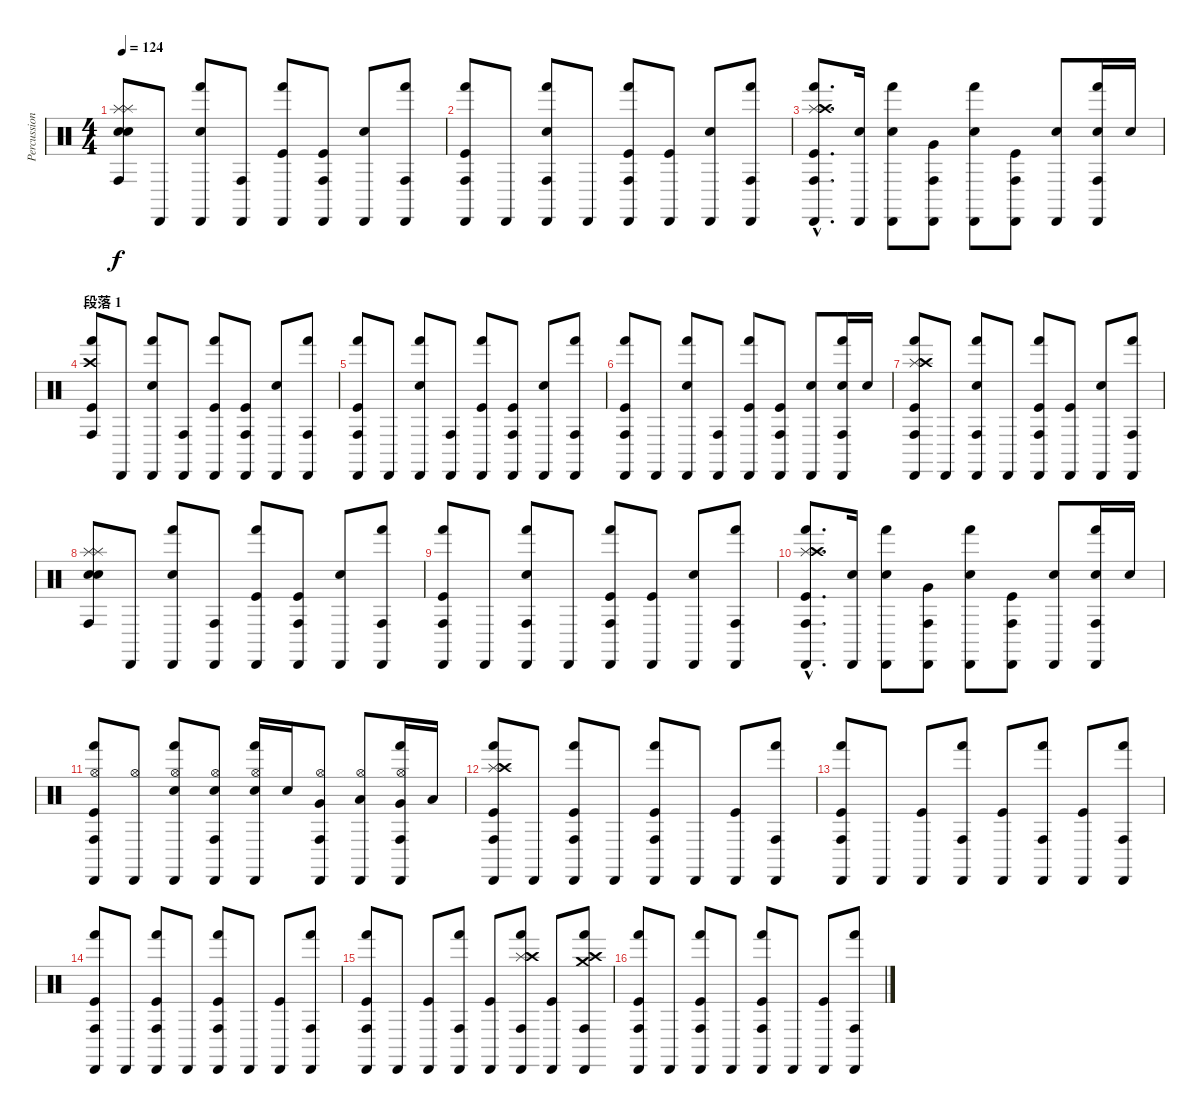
\track ("Percussion" "Percussion") {instrument percussion}
\staff {score}
\articulation defaults
\ts (4 4)
\tempo 124
\clef neutral
\ks c
("Splash (hit)" "Snare (hit)" "Splash (hit)" "Conga high (hit)" "Snare (hit)").8{dy f} "Cabasa (hit)".8 ("Cabasa (hit)" "Electric Snare (hit)" "Hand (hit)").8 ("Cabasa (hit)" "Conga high (hit)").8 ("Cabasa (hit)" "Kick (hit)" "Hand (hit)").8 ("Cabasa (hit)" "Kick (hit)" "Conga high (hit)").8 ("Cabasa (hit)" "Electric Snare (hit)").8 ("Cabasa (hit)" "Hand (hit)" "Conga high (hit)").8 |
("Cabasa (hit)" "Kick (hit)" "Hand (hit)" "Conga high (hit)").8 "Cabasa (hit)".8 ("Cabasa (hit)" "Electric Snare (hit)" "Hand (hit)" "Conga high (hit)").8 "Cabasa (hit)".8 ("Cabasa (hit)" "Kick (hit)" "Hand (hit)" "Conga high (hit)").8 ("Cabasa (hit)" "Kick (hit)").8 ("Cabasa (hit)" "Electric Snare (hit)").8 ("Cabasa (hit)" "Hand (hit)" "Conga high (hit)").8 |
("Cabasa (hit)"{hac} "Kick (hit)"{hac} "Hand (hit)"{hac} "Conga high (hit)"{hac} "Splash (hit)"{hac} "Crash high (hit)"{hac}).8{d} ("Cabasa (hit)" "Snare (hit) 2").16 ("Cabasa (hit)" "Snare (hit) 2" "Hand (hit)").8 ("Cabasa (hit)" "Very Low Tom (hit)" "Conga high (hit)").8 ("Cabasa (hit)" "Snare (hit) 2" "Hand (hit)").8 ("Cabasa (hit)" "Kick (hit)" "Conga high (hit)").8 ("Cabasa (hit)" "Snare (hit) 2").8 ("Cabasa (hit)" "Snare (hit) 2" "Hand (hit)" "Conga high (hit)").16 "Snare (hit) 2".16 |
\section ("" "段落 1")
("Crash high (hit)" "Kick (hit)" "Hand (hit)" "Conga high (hit)").8 "Cabasa (hit)".8 ("Cabasa (hit)" "Electric Snare (hit)" "Hand (hit)").8 ("Cabasa (hit)" "Conga high (hit)").8 ("Cabasa (hit)" "Kick (hit)" "Hand (hit)").8 ("Cabasa (hit)" "Kick (hit)" "Conga high (hit)").8 ("Cabasa (hit)" "Electric Snare (hit)").8 ("Cabasa (hit)" "Hand (hit)" "Conga high (hit)").8 |
("Cabasa (hit)" "Kick (hit)" "Hand (hit)" "Conga high (hit)").8 "Cabasa (hit)".8 ("Cabasa (hit)" "Electric Snare (hit)" "Hand (hit)").8 ("Cabasa (hit)" "Conga high (hit)").8 ("Cabasa (hit)" "Kick (hit)" "Hand (hit)").8 ("Cabasa (hit)" "Kick (hit)" "Conga high (hit)").8 ("Cabasa (hit)" "Electric Snare (hit)").8 ("Cabasa (hit)" "Hand (hit)" "Conga high (hit)").8 |
("Cabasa (hit)" "Kick (hit)" "Hand (hit)" "Conga high (hit)").8 "Cabasa (hit)".8 ("Cabasa (hit)" "Electric Snare (hit)" "Hand (hit)").8 ("Cabasa (hit)" "Conga high (hit)").8 ("Cabasa (hit)" "Kick (hit)" "Hand (hit)").8 ("Cabasa (hit)" "Kick (hit)" "Conga high (hit)").8 ("Cabasa (hit)" "Electric Snare (hit)").8 ("Cabasa (hit)" "Snare (hit) 2" "Hand (hit)" "Conga high (hit)").16 "Snare (hit) 2".16 |
("Cabasa (hit)" "Kick (hit)" "Hand (hit)" "Conga high (hit)" "Splash (hit)" "Crash high (hit)").8 "Cabasa (hit)".8 ("Cabasa (hit)" "Electric Snare (hit)" "Hand (hit)" "Conga high (hit)").8 "Cabasa (hit)".8 ("Cabasa (hit)" "Kick (hit)" "Hand (hit)" "Conga high (hit)").8 ("Cabasa (hit)" "Kick (hit)").8 ("Cabasa (hit)" "Electric Snare (hit)").8 ("Cabasa (hit)" "Hand (hit)" "Conga high (hit)").8 |
("Splash (hit)" "Snare (hit)" "Splash (hit)" "Conga high (hit)" "Snare (hit)").8 "Cabasa (hit)".8 ("Cabasa (hit)" "Electric Snare (hit)" "Hand (hit)").8 ("Cabasa (hit)" "Conga high (hit)").8 ("Cabasa (hit)" "Kick (hit)" "Hand (hit)").8 ("Cabasa (hit)" "Kick (hit)" "Conga high (hit)").8 ("Cabasa (hit)" "Electric Snare (hit)").8 ("Cabasa (hit)" "Hand (hit)" "Conga high (hit)").8 |
("Cabasa (hit)" "Kick (hit)" "Hand (hit)" "Conga high (hit)").8 "Cabasa (hit)".8 ("Cabasa (hit)" "Electric Snare (hit)" "Hand (hit)" "Conga high (hit)").8 "Cabasa (hit)".8 ("Cabasa (hit)" "Kick (hit)" "Hand (hit)" "Conga high (hit)").8 ("Cabasa (hit)" "Kick (hit)").8 ("Cabasa (hit)" "Electric Snare (hit)").8 ("Cabasa (hit)" "Hand (hit)" "Conga high (hit)").8 |
("Cabasa (hit)"{hac} "Kick (hit)"{hac} "Hand (hit)"{hac} "Conga high (hit)"{hac} "Splash (hit)"{hac} "Crash high (hit)"{hac}).8{d} ("Cabasa (hit)" "Snare (hit) 2").16 ("Cabasa (hit)" "Snare (hit) 2" "Hand (hit)").8 ("Cabasa (hit)" "Very Low Tom (hit)" "Conga high (hit)").8 ("Cabasa (hit)" "Snare (hit) 2" "Hand (hit)").8 ("Cabasa (hit)" "Kick (hit)" "Conga high (hit)").8 ("Cabasa (hit)" "Snare (hit) 2").8 ("Cabasa (hit)" "Snare (hit) 2" "Hand (hit)" "Conga high (hit)").16 "Snare (hit) 2".16 |
("Cabasa (hit)" "Kick (hit)" "Hand (hit)" "Conga high (hit)" "Hi-Hat (open)").8 ("Cabasa (hit)" "Hi-Hat (open)").8 ("Cabasa (hit)" "Electric Snare (hit)" "Hand (hit)" "Hi-Hat (open)").8 ("Cabasa (hit)" "Electric Snare (hit)" "Conga high (hit)" "Hi-Hat (open)").8 ("Cabasa (hit)" "Snare (hit) 2" "Hand (hit)" "Hi-Hat (open)").16 "Snare (hit) 2".16 ("Cabasa (hit)" "Very Low Tom (hit)" "Conga high (hit)" "Hi-Hat (open)").8 ("Cabasa (hit)" "Low Floor Tom (hit)" "Hi-Hat (open)").8 ("Cabasa (hit)" "Very Low Tom (hit)" "Hand (hit)" "Conga high (hit)" "Hi-Hat (open)").16 "Low Tom (hit)".16 |
("Cabasa (hit)" "Kick (hit)" "Hand (hit)" "Conga high (hit)" "Splash (hit)" "Crash high (hit)").8 "Cabasa (hit)".8 ("Cabasa (hit)" "Kick (hit)" "Hand (hit)" "Conga high (hit)").8 "Cabasa (hit)".8 ("Cabasa (hit)" "Kick (hit)" "Hand (hit)" "Conga high (hit)").8 "Cabasa (hit)".8 ("Cabasa (hit)" "Kick (hit)").8 ("Cabasa (hit)" "Hand (hit)" "Conga high (hit)").8 |
("Cabasa (hit)" "Kick (hit)" "Hand (hit)" "Conga high (hit)").8 "Cabasa (hit)".8 ("Cabasa (hit)" "Kick (hit)").8 ("Cabasa (hit)" "Hand (hit)" "Conga high (hit)").8 ("Cabasa (hit)" "Kick (hit)").8 ("Cabasa (hit)" "Hand (hit)" "Conga high (hit)").8 ("Cabasa (hit)" "Kick (hit)").8 ("Cabasa (hit)" "Hand (hit)" "Conga high (hit)").8 |
("Cabasa (hit)" "Kick (hit)" "Hand (hit)" "Conga high (hit)").8 "Cabasa (hit)".8 ("Cabasa (hit)" "Kick (hit)" "Hand (hit)" "Conga high (hit)").8 "Cabasa (hit)".8 ("Cabasa (hit)" "Kick (hit)" "Hand (hit)" "Conga high (hit)").8 "Cabasa (hit)".8 ("Cabasa (hit)" "Kick (hit)").8 ("Cabasa (hit)" "Hand (hit)" "Conga high (hit)").8 |
("Cabasa (hit)" "Kick (hit)" "Hand (hit)" "Conga high (hit)").8 "Cabasa (hit)".8 ("Cabasa (hit)" "Kick (hit)").8 ("Cabasa (hit)" "Hand (hit)" "Conga high (hit)").8 ("Cabasa (hit)" "Kick (hit)").8 ("Cabasa (hit)" "Hand (hit)" "Conga high (hit)" "Splash (hit)" "Crash high (hit)").8 ("Cabasa (hit)" "Kick (hit)").8 ("Cabasa (hit)" "Hand (hit)" "Conga high (hit)" "Crash medium (hit)" "Crash high (hit)").8 |
("Cabasa (hit)" "Kick (hit)" "Hand (hit)" "Conga high (hit)").8 "Cabasa (hit)".8 ("Cabasa (hit)" "Kick (hit)" "Hand (hit)" "Conga high (hit)").8 "Cabasa (hit)".8 ("Cabasa (hit)" "Kick (hit)" "Hand (hit)" "Conga high (hit)").8 "Cabasa (hit)".8 ("Cabasa (hit)" "Kick (hit)").8 ("Cabasa (hit)" "Hand (hit)" "Conga high (hit)").8
